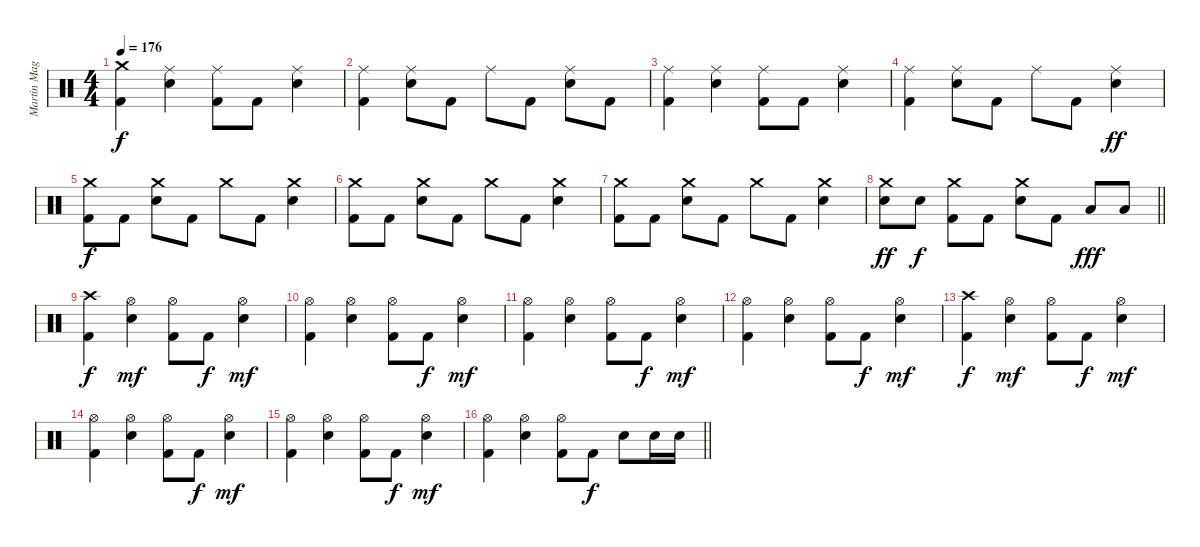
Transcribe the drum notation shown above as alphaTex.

\track ("Martin Magliano" "Martin Mag") {instrument percussion}
\staff {score}
\articulation defaults
\ts (4 4)
\tempo 176
\clef neutral
\ks c
("Crash medium (hit)" "Kick (hit) 2").4{dy f} ("Ride (middle)" "Snare (hit) 2").4 ("Ride (middle)" "Kick (hit) 2").8 "Kick (hit) 2".8 ("Ride (middle)" "Snare (hit) 2").4 |
("Ride (middle)" "Kick (hit) 2").4 ("Ride (middle)" "Snare (hit) 2").8 "Kick (hit) 2".8 "Ride (middle)".8 "Kick (hit) 2".8 ("Ride (middle)" "Snare (hit) 2").8 "Kick (hit) 2".8 |
("Ride (middle)" "Kick (hit) 2").4 ("Ride (middle)" "Snare (hit) 2").4 ("Ride (middle)" "Kick (hit) 2").8 "Kick (hit) 2".8 ("Ride (middle)" "Snare (hit) 2").4 |
("Ride (middle)" "Kick (hit) 2").4 ("Ride (middle)" "Snare (hit) 2").8 "Kick (hit) 2".8 "Ride (middle)".8 "Kick (hit) 2".8 ("Ride (middle)" "Snare (hit) 2").4{dy ff} |
("Crash medium (hit)" "Kick (hit) 2").8{dy f} "Kick (hit) 2".8 ("Crash medium (hit)" "Snare (hit) 2").8 "Kick (hit) 2".8 "Crash medium (hit)".8 "Kick (hit) 2".8 ("Crash medium (hit)" "Snare (hit) 2").4 |
("Crash medium (hit)" "Kick (hit) 2").8 "Kick (hit) 2".8 ("Crash medium (hit)" "Snare (hit) 2").8 "Kick (hit) 2".8 "Crash medium (hit)".8 "Kick (hit) 2".8 ("Crash medium (hit)" "Snare (hit) 2").4 |
("Crash medium (hit)" "Kick (hit) 2").8 "Kick (hit) 2".8 ("Crash medium (hit)" "Snare (hit) 2").8 "Kick (hit) 2".8 "Crash medium (hit)".8 "Kick (hit) 2".8 ("Crash medium (hit)" "Snare (hit) 2").4 |
\barLineRight lightlight
("Crash medium (hit)" "Snare (hit) 2").8{dy ff} "Snare (hit) 2".8{dy f} ("Crash medium (hit)" "Kick (hit) 2").8 "Kick (hit) 2".8 ("Crash medium (hit)" "Snare (hit) 2").8 "Kick (hit) 2".8 "Low Tom (hit)".8{dy fff} "Low Tom (hit)".8 |
("Crash high (hit)" "Kick (hit) 2").4{dy f} ("Hi-Hat (open)" "Snare (hit) 2").4{dy mf} ("Hi-Hat (open)" "Kick (hit) 2").8 "Kick (hit) 2".8{dy f} ("Hi-Hat (open)" "Snare (hit) 2").4{dy mf} |
("Hi-Hat (open)" "Kick (hit) 2").4 ("Hi-Hat (open)" "Snare (hit) 2").4 ("Hi-Hat (open)" "Kick (hit) 2").8 "Kick (hit) 2".8{dy f} ("Hi-Hat (open)" "Snare (hit) 2").4{dy mf} |
("Hi-Hat (open)" "Kick (hit) 2").4 ("Hi-Hat (open)" "Snare (hit) 2").4 ("Hi-Hat (open)" "Kick (hit) 2").8 "Kick (hit) 2".8{dy f} ("Hi-Hat (open)" "Snare (hit) 2").4{dy mf} |
("Hi-Hat (open)" "Kick (hit) 2").4 ("Hi-Hat (open)" "Snare (hit) 2").4 ("Hi-Hat (open)" "Kick (hit) 2").8 "Kick (hit) 2".8{dy f} ("Hi-Hat (open)" "Snare (hit) 2").4{dy mf} |
("Crash high (hit)" "Kick (hit) 2").4{dy f} ("Hi-Hat (open)" "Snare (hit) 2").4{dy mf} ("Hi-Hat (open)" "Kick (hit) 2").8 "Kick (hit) 2".8{dy f} ("Hi-Hat (open)" "Snare (hit) 2").4{dy mf} |
("Hi-Hat (open)" "Kick (hit) 2").4 ("Hi-Hat (open)" "Snare (hit) 2").4 ("Hi-Hat (open)" "Kick (hit) 2").8 "Kick (hit) 2".8{dy f} ("Hi-Hat (open)" "Snare (hit) 2").4{dy mf} |
("Hi-Hat (open)" "Kick (hit) 2").4 ("Hi-Hat (open)" "Snare (hit) 2").4 ("Hi-Hat (open)" "Kick (hit) 2").8 "Kick (hit) 2".8{dy f} ("Hi-Hat (open)" "Snare (hit) 2").4{dy mf} |
\barLineRight lightlight
("Hi-Hat (open)" "Kick (hit) 2").4 ("Hi-Hat (open)" "Snare (hit) 2").4 ("Hi-Hat (open)" "Kick (hit) 2").8 "Kick (hit) 2".8{dy f} "Snare (hit) 2".8 "Snare (hit) 2".16 "Snare (hit) 2".16
